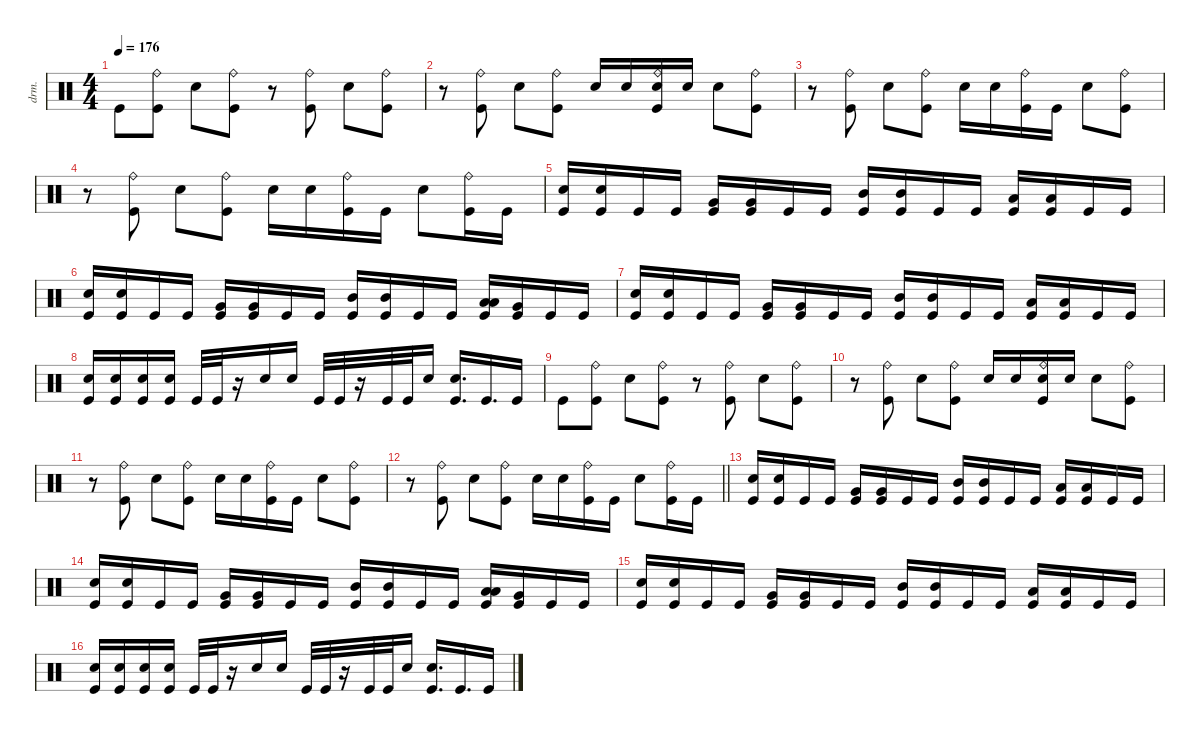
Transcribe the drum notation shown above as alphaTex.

\defaultSystemsLayout 4
\hideDynamics
\bracketExtendMode nobrackets
\track ("Gene Hoglan " "drm.") {instrument percussion}
\staff {score}
\articulation defaults
\ts (4 4)
\tempo 176
\clef neutral
\ks c "Kick (hit)".8{dy f}
("Ride (bell)" "Kick (hit)").8 "Snare (hit) 2".8 ("Ride (bell)" "Kick (hit)").8 r.8 ("Ride (bell)" "Kick (hit)").8 "Snare (hit) 2".8 ("Ride (bell)" "Kick (hit)").8 |
r.8 ("Ride (bell)" "Kick (hit)").8 "Snare (hit) 2".8 ("Ride (bell)" "Kick (hit)").8 "Snare (hit) 2".16 "Snare (hit) 2".16 ("Ride (bell)" "Snare (hit) 2" "Kick (hit)").16 "Snare (hit) 2".16 "Snare (hit) 2".8 ("Ride (bell)" "Kick (hit)").8 |
r.8 ("Ride (bell)" "Kick (hit)").8 "Snare (hit) 2".8 ("Ride (bell)" "Kick (hit)").8 "Snare (hit) 2".16 "Snare (hit) 2".16 ("Ride (bell)" "Kick (hit)").16 "Kick (hit)".16 "Snare (hit) 2".8 ("Ride (bell)" "Kick (hit)").8 |
r.8 ("Ride (bell)" "Kick (hit)").8 "Snare (hit) 2".8 ("Ride (bell)" "Kick (hit)").8 "Snare (hit) 2".16 "Snare (hit) 2".16 ("Ride (bell)" "Kick (hit)").16 "Kick (hit)".16 "Snare (hit) 2".8 ("Ride (bell)" "Kick (hit)").16 "Kick (hit)".16 |
("Snare (hit) 2" "Kick (hit)").16 ("Snare (hit) 2" "Kick (hit)").16 "Kick (hit)".16 "Kick (hit)".16 ("Very Low Tom (hit)" "Kick (hit)").16 ("Very Low Tom (hit)" "Kick (hit)").16 "Kick (hit)".16 "Kick (hit)".16 ("Mid Tom (hit)" "Kick (hit)").16 ("Mid Tom (hit)" "Kick (hit)").16 "Kick (hit)".16 "Kick (hit)".16 ("Low Tom (hit)" "Kick (hit)").16 ("Low Tom (hit)" "Kick (hit)").16 "Kick (hit)".16 "Kick (hit)".16 |
("Snare (hit) 2" "Kick (hit)").16 ("Snare (hit) 2" "Kick (hit)").16 "Kick (hit)".16 "Kick (hit)".16 ("Very Low Tom (hit)" "Kick (hit)").16 ("Very Low Tom (hit)" "Kick (hit)").16 "Kick (hit)".16 "Kick (hit)".16 ("Mid Tom (hit)" "Kick (hit)").16 ("Mid Tom (hit)" "Kick (hit)").16 "Kick (hit)".16 "Kick (hit)".16 ("Low Tom (hit)" "Low Tom (hit)" "Kick (hit)").16 ("Very Low Tom (hit)" "Kick (hit)").16 "Kick (hit)".16 "Kick (hit)".16 |
("Snare (hit) 2" "Kick (hit)").16 ("Snare (hit) 2" "Kick (hit)").16 "Kick (hit)".16 "Kick (hit)".16 ("Very Low Tom (hit)" "Kick (hit)").16 ("Very Low Tom (hit)" "Kick (hit)").16 "Kick (hit)".16 "Kick (hit)".16 ("Mid Tom (hit)" "Kick (hit)").16 ("Mid Tom (hit)" "Kick (hit)").16 "Kick (hit)".16 "Kick (hit)".16 ("Low Tom (hit)" "Kick (hit)").16 ("Low Tom (hit)" "Kick (hit)").16 "Kick (hit)".16 "Kick (hit)".16 |
("Snare (hit) 2" "Kick (hit)").16 ("Snare (hit) 2" "Kick (hit)").16 ("Snare (hit) 2" "Kick (hit)").16 ("Snare (hit) 2" "Kick (hit)").16 "Kick (hit)".32 "Kick (hit)".32 r.16 "Snare (hit) 2".16 "Snare (hit) 2".16 "Kick (hit)".32 "Kick (hit)".32 r.16 "Kick (hit)".32 "Kick (hit)".32 "Snare (hit) 2".16 ("Snare (hit) 2" "Kick (hit)").16{d} "Kick (hit)".16{d} "Kick (hit)".16 |
"Kick (hit)".8 ("Ride (bell)" "Kick (hit)").8 "Snare (hit) 2".8 ("Ride (bell)" "Kick (hit)").8 r.8 ("Ride (bell)" "Kick (hit)").8 "Snare (hit) 2".8 ("Ride (bell)" "Kick (hit)").8 |
r.8 ("Ride (bell)" "Kick (hit)").8 "Snare (hit) 2".8 ("Ride (bell)" "Kick (hit)").8 "Snare (hit) 2".16 "Snare (hit) 2".16 ("Ride (bell)" "Snare (hit) 2" "Kick (hit)").16 "Snare (hit) 2".16 "Snare (hit) 2".8 ("Ride (bell)" "Kick (hit)").8 |
r.8 ("Ride (bell)" "Kick (hit)").8 "Snare (hit) 2".8 ("Ride (bell)" "Kick (hit)").8 "Snare (hit) 2".16 "Snare (hit) 2".16 ("Ride (bell)" "Kick (hit)").16 "Kick (hit)".16 "Snare (hit) 2".8 ("Ride (bell)" "Kick (hit)").8 |
\barLineRight lightlight
r.8 ("Ride (bell)" "Kick (hit)").8 "Snare (hit) 2".8 ("Ride (bell)" "Kick (hit)").8 "Snare (hit) 2".16 "Snare (hit) 2".16 ("Ride (bell)" "Kick (hit)").16 "Kick (hit)".16 "Snare (hit) 2".8 ("Ride (bell)" "Kick (hit)").16 "Kick (hit)".16 |
("Snare (hit) 2" "Kick (hit)").16 ("Snare (hit) 2" "Kick (hit)").16 "Kick (hit)".16 "Kick (hit)".16 ("Very Low Tom (hit)" "Kick (hit)").16 ("Very Low Tom (hit)" "Kick (hit)").16 "Kick (hit)".16 "Kick (hit)".16 ("Mid Tom (hit)" "Kick (hit)").16 ("Mid Tom (hit)" "Kick (hit)").16 "Kick (hit)".16 "Kick (hit)".16 ("Low Tom (hit)" "Kick (hit)").16 ("Low Tom (hit)" "Kick (hit)").16 "Kick (hit)".16 "Kick (hit)".16 |
("Snare (hit) 2" "Kick (hit)").16 ("Snare (hit) 2" "Kick (hit)").16 "Kick (hit)".16 "Kick (hit)".16 ("Very Low Tom (hit)" "Kick (hit)").16 ("Very Low Tom (hit)" "Kick (hit)").16 "Kick (hit)".16 "Kick (hit)".16 ("Mid Tom (hit)" "Kick (hit)").16 ("Mid Tom (hit)" "Kick (hit)").16 "Kick (hit)".16 "Kick (hit)".16 ("Low Tom (hit)" "Low Tom (hit)" "Kick (hit)").16 ("Very Low Tom (hit)" "Kick (hit)").16 "Kick (hit)".16 "Kick (hit)".16 |
("Snare (hit) 2" "Kick (hit)").16 ("Snare (hit) 2" "Kick (hit)").16 "Kick (hit)".16 "Kick (hit)".16 ("Very Low Tom (hit)" "Kick (hit)").16 ("Very Low Tom (hit)" "Kick (hit)").16 "Kick (hit)".16 "Kick (hit)".16 ("Mid Tom (hit)" "Kick (hit)").16 ("Mid Tom (hit)" "Kick (hit)").16 "Kick (hit)".16 "Kick (hit)".16 ("Low Tom (hit)" "Kick (hit)").16 ("Low Tom (hit)" "Kick (hit)").16 "Kick (hit)".16 "Kick (hit)".16 |
("Snare (hit) 2" "Kick (hit)").16 ("Snare (hit) 2" "Kick (hit)").16 ("Snare (hit) 2" "Kick (hit)").16 ("Snare (hit) 2" "Kick (hit)").16 "Kick (hit)".32 "Kick (hit)".32 r.16 "Snare (hit) 2".16 "Snare (hit) 2".16 "Kick (hit)".32 "Kick (hit)".32 r.16 "Kick (hit)".32 "Kick (hit)".32 "Snare (hit) 2".16 ("Snare (hit) 2" "Kick (hit)").16{d} "Kick (hit)".16{d} "Kick (hit)".16
